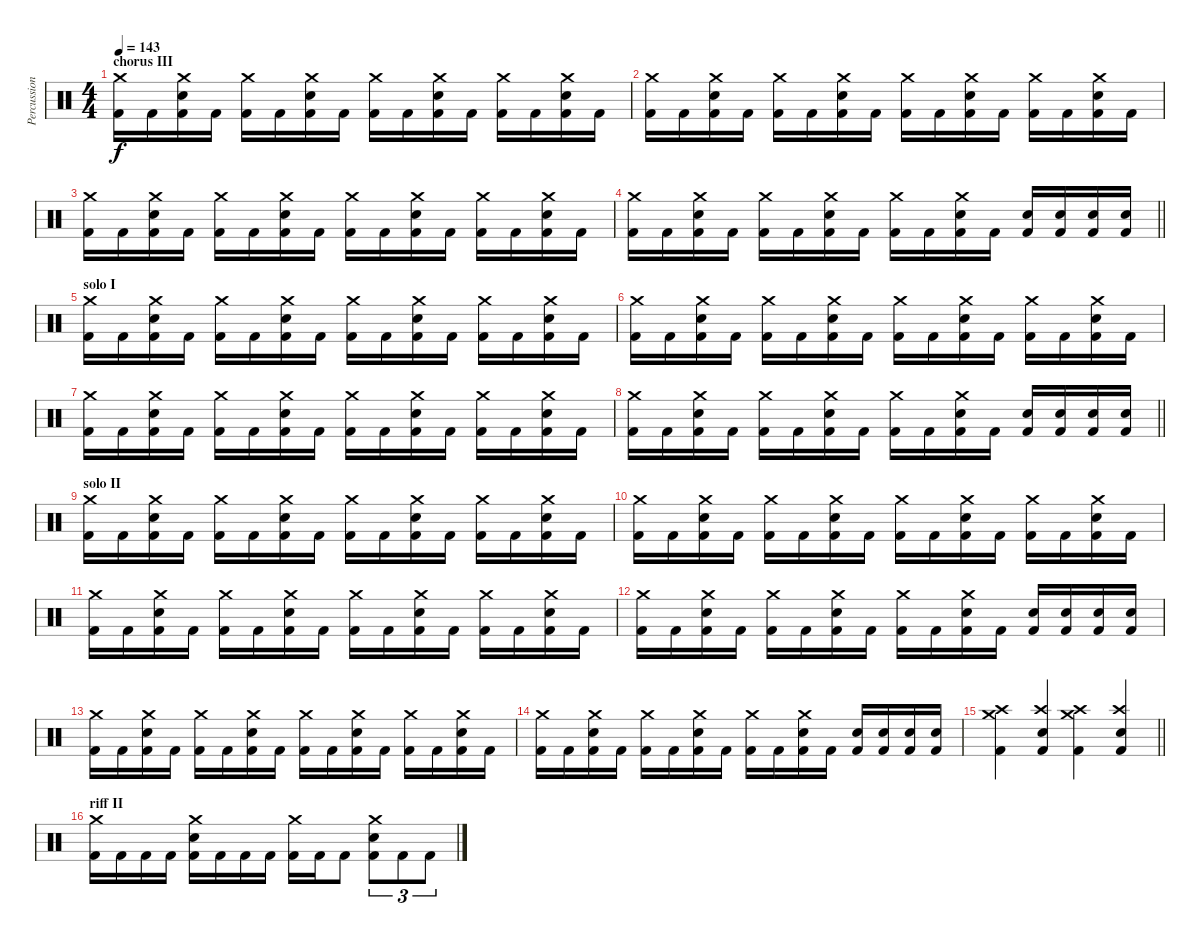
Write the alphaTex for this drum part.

\track ("Percussion" "Percussion") {instrument percussion}
\staff {score}
\articulation defaults
\ts (4 4)
\section ("" "chorus III")
\tempo 143
\clef neutral
\ks c
("Crash medium (hit)" "Kick (hit) 2").16{dy f} "Kick (hit) 2".16 ("Crash medium (hit)" "Snare (hit) 2" "Kick (hit) 2").16 "Kick (hit) 2".16 ("Crash medium (hit)" "Kick (hit) 2").16 "Kick (hit) 2".16 ("Crash medium (hit)" "Snare (hit) 2" "Kick (hit) 2").16 "Kick (hit) 2".16 ("Crash medium (hit)" "Kick (hit) 2").16 "Kick (hit) 2".16 ("Crash medium (hit)" "Snare (hit) 2" "Kick (hit) 2").16 "Kick (hit) 2".16 ("Crash medium (hit)" "Kick (hit) 2").16 "Kick (hit) 2".16 ("Crash medium (hit)" "Snare (hit) 2" "Kick (hit) 2").16 "Kick (hit) 2".16 |
("Crash medium (hit)" "Kick (hit) 2").16 "Kick (hit) 2".16 ("Crash medium (hit)" "Snare (hit) 2" "Kick (hit) 2").16 "Kick (hit) 2".16 ("Crash medium (hit)" "Kick (hit) 2").16 "Kick (hit) 2".16 ("Crash medium (hit)" "Snare (hit) 2" "Kick (hit) 2").16 "Kick (hit) 2".16 ("Crash medium (hit)" "Kick (hit) 2").16 "Kick (hit) 2".16 ("Crash medium (hit)" "Snare (hit) 2" "Kick (hit) 2").16 "Kick (hit) 2".16 ("Crash medium (hit)" "Kick (hit) 2").16 "Kick (hit) 2".16 ("Crash medium (hit)" "Snare (hit) 2" "Kick (hit) 2").16 "Kick (hit) 2".16 |
("Crash medium (hit)" "Kick (hit) 2").16 "Kick (hit) 2".16 ("Crash medium (hit)" "Snare (hit) 2" "Kick (hit) 2").16 "Kick (hit) 2".16 ("Crash medium (hit)" "Kick (hit) 2").16 "Kick (hit) 2".16 ("Crash medium (hit)" "Snare (hit) 2" "Kick (hit) 2").16 "Kick (hit) 2".16 ("Crash medium (hit)" "Kick (hit) 2").16 "Kick (hit) 2".16 ("Crash medium (hit)" "Snare (hit) 2" "Kick (hit) 2").16 "Kick (hit) 2".16 ("Crash medium (hit)" "Kick (hit) 2").16 "Kick (hit) 2".16 ("Crash medium (hit)" "Snare (hit) 2" "Kick (hit) 2").16 "Kick (hit) 2".16 |
\barLineRight lightlight
("Crash medium (hit)" "Kick (hit) 2").16 "Kick (hit) 2".16 ("Crash medium (hit)" "Snare (hit) 2" "Kick (hit) 2").16 "Kick (hit) 2".16 ("Crash medium (hit)" "Kick (hit) 2").16 "Kick (hit) 2".16 ("Crash medium (hit)" "Snare (hit) 2" "Kick (hit) 2").16 "Kick (hit) 2".16 ("Crash medium (hit)" "Kick (hit) 2").16 "Kick (hit) 2".16 ("Crash medium (hit)" "Snare (hit) 2" "Kick (hit) 2").16 "Kick (hit) 2".16 ("Snare (hit) 2" "Kick (hit) 2").16 ("Snare (hit) 2" "Kick (hit) 2").16 ("Snare (hit) 2" "Kick (hit) 2").16 ("Snare (hit) 2" "Kick (hit) 2").16 |
\section ("" "solo I")
("Crash medium (hit)" "Kick (hit) 2").16 "Kick (hit) 2".16 ("Crash medium (hit)" "Snare (hit) 2" "Kick (hit) 2").16 "Kick (hit) 2".16 ("Crash medium (hit)" "Kick (hit) 2").16 "Kick (hit) 2".16 ("Crash medium (hit)" "Snare (hit) 2" "Kick (hit) 2").16 "Kick (hit) 2".16 ("Crash medium (hit)" "Kick (hit) 2").16 "Kick (hit) 2".16 ("Crash medium (hit)" "Snare (hit) 2" "Kick (hit) 2").16 "Kick (hit) 2".16 ("Crash medium (hit)" "Kick (hit) 2").16 "Kick (hit) 2".16 ("Crash medium (hit)" "Snare (hit) 2" "Kick (hit) 2").16 "Kick (hit) 2".16 |
\ks aminor
("Crash medium (hit)" "Kick (hit) 2").16 "Kick (hit) 2".16 ("Crash medium (hit)" "Snare (hit) 2" "Kick (hit) 2").16 "Kick (hit) 2".16 ("Crash medium (hit)" "Kick (hit) 2").16 "Kick (hit) 2".16 ("Crash medium (hit)" "Snare (hit) 2" "Kick (hit) 2").16 "Kick (hit) 2".16 ("Crash medium (hit)" "Kick (hit) 2").16 "Kick (hit) 2".16 ("Crash medium (hit)" "Snare (hit) 2" "Kick (hit) 2").16 "Kick (hit) 2".16 ("Crash medium (hit)" "Kick (hit) 2").16 "Kick (hit) 2".16 ("Crash medium (hit)" "Snare (hit) 2" "Kick (hit) 2").16 "Kick (hit) 2".16 |
\ks c
("Crash medium (hit)" "Kick (hit) 2").16 "Kick (hit) 2".16 ("Crash medium (hit)" "Snare (hit) 2" "Kick (hit) 2").16 "Kick (hit) 2".16 ("Crash medium (hit)" "Kick (hit) 2").16 "Kick (hit) 2".16 ("Crash medium (hit)" "Snare (hit) 2" "Kick (hit) 2").16 "Kick (hit) 2".16 ("Crash medium (hit)" "Kick (hit) 2").16 "Kick (hit) 2".16 ("Crash medium (hit)" "Snare (hit) 2" "Kick (hit) 2").16 "Kick (hit) 2".16 ("Crash medium (hit)" "Kick (hit) 2").16 "Kick (hit) 2".16 ("Crash medium (hit)" "Snare (hit) 2" "Kick (hit) 2").16 "Kick (hit) 2".16 |
\barLineRight lightlight
\ks aminor
("Crash medium (hit)" "Kick (hit) 2").16 "Kick (hit) 2".16 ("Crash medium (hit)" "Snare (hit) 2" "Kick (hit) 2").16 "Kick (hit) 2".16 ("Crash medium (hit)" "Kick (hit) 2").16 "Kick (hit) 2".16 ("Crash medium (hit)" "Snare (hit) 2" "Kick (hit) 2").16 "Kick (hit) 2".16 ("Crash medium (hit)" "Kick (hit) 2").16 "Kick (hit) 2".16 ("Crash medium (hit)" "Snare (hit) 2" "Kick (hit) 2").16 "Kick (hit) 2".16 ("Snare (hit) 2" "Kick (hit) 2").16 ("Snare (hit) 2" "Kick (hit) 2").16 ("Snare (hit) 2" "Kick (hit) 2").16 ("Snare (hit) 2" "Kick (hit) 2").16 |
\section ("" "solo II")
("Crash medium (hit)" "Kick (hit) 2").16 "Kick (hit) 2".16 ("Crash medium (hit)" "Snare (hit) 2" "Kick (hit) 2").16 "Kick (hit) 2".16 ("Crash medium (hit)" "Kick (hit) 2").16 "Kick (hit) 2".16 ("Crash medium (hit)" "Snare (hit) 2" "Kick (hit) 2").16 "Kick (hit) 2".16 ("Crash medium (hit)" "Kick (hit) 2").16 "Kick (hit) 2".16 ("Crash medium (hit)" "Snare (hit) 2" "Kick (hit) 2").16 "Kick (hit) 2".16 ("Crash medium (hit)" "Kick (hit) 2").16 "Kick (hit) 2".16 ("Crash medium (hit)" "Snare (hit) 2" "Kick (hit) 2").16 "Kick (hit) 2".16 |
\ks c
("Crash medium (hit)" "Kick (hit) 2").16 "Kick (hit) 2".16 ("Crash medium (hit)" "Snare (hit) 2" "Kick (hit) 2").16 "Kick (hit) 2".16 ("Crash medium (hit)" "Kick (hit) 2").16 "Kick (hit) 2".16 ("Crash medium (hit)" "Snare (hit) 2" "Kick (hit) 2").16 "Kick (hit) 2".16 ("Crash medium (hit)" "Kick (hit) 2").16 "Kick (hit) 2".16 ("Crash medium (hit)" "Snare (hit) 2" "Kick (hit) 2").16 "Kick (hit) 2".16 ("Crash medium (hit)" "Kick (hit) 2").16 "Kick (hit) 2".16 ("Crash medium (hit)" "Snare (hit) 2" "Kick (hit) 2").16 "Kick (hit) 2".16 |
("Crash medium (hit)" "Kick (hit) 2").16 "Kick (hit) 2".16 ("Crash medium (hit)" "Snare (hit) 2" "Kick (hit) 2").16 "Kick (hit) 2".16 ("Crash medium (hit)" "Kick (hit) 2").16 "Kick (hit) 2".16 ("Crash medium (hit)" "Snare (hit) 2" "Kick (hit) 2").16 "Kick (hit) 2".16 ("Crash medium (hit)" "Kick (hit) 2").16 "Kick (hit) 2".16 ("Crash medium (hit)" "Snare (hit) 2" "Kick (hit) 2").16 "Kick (hit) 2".16 ("Crash medium (hit)" "Kick (hit) 2").16 "Kick (hit) 2".16 ("Crash medium (hit)" "Snare (hit) 2" "Kick (hit) 2").16 "Kick (hit) 2".16 |
("Crash medium (hit)" "Kick (hit) 2").16 "Kick (hit) 2".16 ("Crash medium (hit)" "Snare (hit) 2" "Kick (hit) 2").16 "Kick (hit) 2".16 ("Crash medium (hit)" "Kick (hit) 2").16 "Kick (hit) 2".16 ("Crash medium (hit)" "Snare (hit) 2" "Kick (hit) 2").16 "Kick (hit) 2".16 ("Crash medium (hit)" "Kick (hit) 2").16 "Kick (hit) 2".16 ("Crash medium (hit)" "Snare (hit) 2" "Kick (hit) 2").16 "Kick (hit) 2".16 ("Snare (hit) 2" "Kick (hit) 2").16 ("Snare (hit) 2" "Kick (hit) 2").16 ("Snare (hit) 2" "Kick (hit) 2").16 ("Snare (hit) 2" "Kick (hit) 2").16 |
("Crash medium (hit)" "Kick (hit) 2").16 "Kick (hit) 2".16 ("Crash medium (hit)" "Snare (hit) 2" "Kick (hit) 2").16 "Kick (hit) 2".16 ("Crash medium (hit)" "Kick (hit) 2").16 "Kick (hit) 2".16 ("Crash medium (hit)" "Snare (hit) 2" "Kick (hit) 2").16 "Kick (hit) 2".16 ("Crash medium (hit)" "Kick (hit) 2").16 "Kick (hit) 2".16 ("Crash medium (hit)" "Snare (hit) 2" "Kick (hit) 2").16 "Kick (hit) 2".16 ("Crash medium (hit)" "Kick (hit) 2").16 "Kick (hit) 2".16 ("Crash medium (hit)" "Snare (hit) 2" "Kick (hit) 2").16 "Kick (hit) 2".16 |
("Crash medium (hit)" "Kick (hit) 2").16 "Kick (hit) 2".16 ("Crash medium (hit)" "Snare (hit) 2" "Kick (hit) 2").16 "Kick (hit) 2".16 ("Crash medium (hit)" "Kick (hit) 2").16 "Kick (hit) 2".16 ("Crash medium (hit)" "Snare (hit) 2" "Kick (hit) 2").16 "Kick (hit) 2".16 ("Crash medium (hit)" "Kick (hit) 2").16 "Kick (hit) 2".16 ("Crash medium (hit)" "Snare (hit) 2" "Kick (hit) 2").16 "Kick (hit) 2".16 ("Snare (hit) 2" "Kick (hit) 2").16 ("Snare (hit) 2" "Kick (hit) 2").16 ("Snare (hit) 2" "Kick (hit) 2").16 ("Snare (hit) 2" "Kick (hit) 2").16 |
\barLineRight lightlight
("Crash high (hit)" "Crash medium (hit)" "Kick (hit) 2").4 ("Crash high (hit)" "Electric Snare (hit)" "Kick (hit) 2").4 ("Crash high (hit)" "Crash medium (hit)" "Kick (hit) 2").4 ("Crash high (hit)" "Electric Snare (hit)" "Kick (hit) 2").4 |
\section ("" "riff II")
("Crash medium (hit)" "Kick (hit) 2").16 "Kick (hit) 2".16 "Kick (hit) 2".16 "Kick (hit) 2".16 ("Crash medium (hit)" "Snare (hit) 2" "Kick (hit) 2").16 "Kick (hit) 2".16 "Kick (hit) 2".16 "Kick (hit) 2".16 ("Crash medium (hit)" "Kick (hit) 2").16 "Kick (hit) 2".16 "Kick (hit) 2".8 ("Crash medium (hit)" "Snare (hit) 2" "Kick (hit) 2").8{tu (3 2)} "Kick (hit) 2".8{tu (3 2)} "Kick (hit) 2".8{tu (3 2)}
